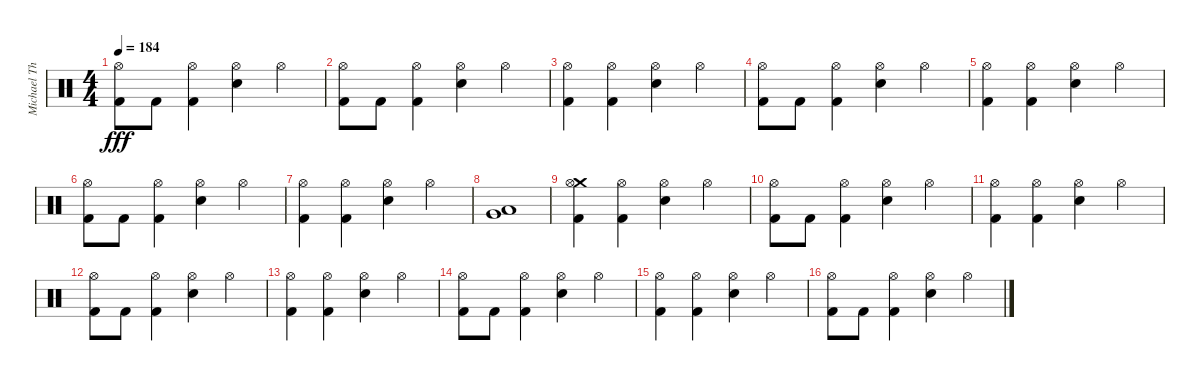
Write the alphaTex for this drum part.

\track ("Michael Thomas - Drums" "Michael Th") {instrument percussion}
\staff {score}
\articulation defaults
\ts (4 4)
\tempo 184
\clef neutral
\ks c
("Hi-Hat (open)" "Kick (hit) 2").8{dy fff} "Kick (hit) 2".8 ("Hi-Hat (open)" "Kick (hit) 2").4 ("Hi-Hat (open)" "Snare (hit) 2").4 "Hi-Hat (open)".4 |
("Hi-Hat (open)" "Kick (hit) 2").8 "Kick (hit) 2".8 ("Hi-Hat (open)" "Kick (hit) 2").4 ("Hi-Hat (open)" "Snare (hit) 2").4 "Hi-Hat (open)".4 |
("Hi-Hat (open)" "Kick (hit) 2").4 ("Hi-Hat (open)" "Kick (hit) 2").4 ("Hi-Hat (open)" "Snare (hit) 2").4 "Hi-Hat (open)".4 |
("Hi-Hat (open)" "Kick (hit) 2").8 "Kick (hit) 2".8 ("Hi-Hat (open)" "Kick (hit) 2").4 ("Hi-Hat (open)" "Snare (hit) 2").4 "Hi-Hat (open)".4 |
("Hi-Hat (open)" "Kick (hit) 2").4 ("Hi-Hat (open)" "Kick (hit) 2").4 ("Hi-Hat (open)" "Snare (hit) 2").4 "Hi-Hat (open)".4 |
("Hi-Hat (open)" "Kick (hit) 2").8 "Kick (hit) 2".8 ("Hi-Hat (open)" "Kick (hit) 2").4 ("Hi-Hat (open)" "Snare (hit) 2").4 "Hi-Hat (open)".4 |
("Hi-Hat (open)" "Kick (hit) 2").4 ("Hi-Hat (open)" "Kick (hit) 2").4 ("Hi-Hat (open)" "Snare (hit) 2").4 "Hi-Hat (open)".4 |
("Very Low Tom (hit)" "Low Floor Tom (hit)").1 |
("Crash medium (hit)" "Hi-Hat (open)" "Kick (hit) 2").4 ("Hi-Hat (open)" "Kick (hit) 2").4 ("Hi-Hat (open)" "Snare (hit) 2").4 "Hi-Hat (open)".4 |
("Hi-Hat (open)" "Kick (hit) 2").8 "Kick (hit) 2".8 ("Hi-Hat (open)" "Kick (hit) 2").4 ("Hi-Hat (open)" "Snare (hit) 2").4 "Hi-Hat (open)".4 |
("Hi-Hat (open)" "Kick (hit) 2").4 ("Hi-Hat (open)" "Kick (hit) 2").4 ("Hi-Hat (open)" "Snare (hit) 2").4 "Hi-Hat (open)".4 |
("Hi-Hat (open)" "Kick (hit) 2").8 "Kick (hit) 2".8 ("Hi-Hat (open)" "Kick (hit) 2").4 ("Hi-Hat (open)" "Snare (hit) 2").4 "Hi-Hat (open)".4 |
("Hi-Hat (open)" "Kick (hit) 2").4 ("Hi-Hat (open)" "Kick (hit) 2").4 ("Hi-Hat (open)" "Snare (hit) 2").4 "Hi-Hat (open)".4 |
("Hi-Hat (open)" "Kick (hit) 2").8 "Kick (hit) 2".8 ("Hi-Hat (open)" "Kick (hit) 2").4 ("Hi-Hat (open)" "Snare (hit) 2").4 "Hi-Hat (open)".4 |
("Hi-Hat (open)" "Kick (hit) 2").4 ("Hi-Hat (open)" "Kick (hit) 2").4 ("Hi-Hat (open)" "Snare (hit) 2").4 "Hi-Hat (open)".4 |
("Hi-Hat (open)" "Kick (hit) 2").8 "Kick (hit) 2".8 ("Hi-Hat (open)" "Kick (hit) 2").4 ("Hi-Hat (open)" "Snare (hit) 2").4 "Hi-Hat (open)".4
